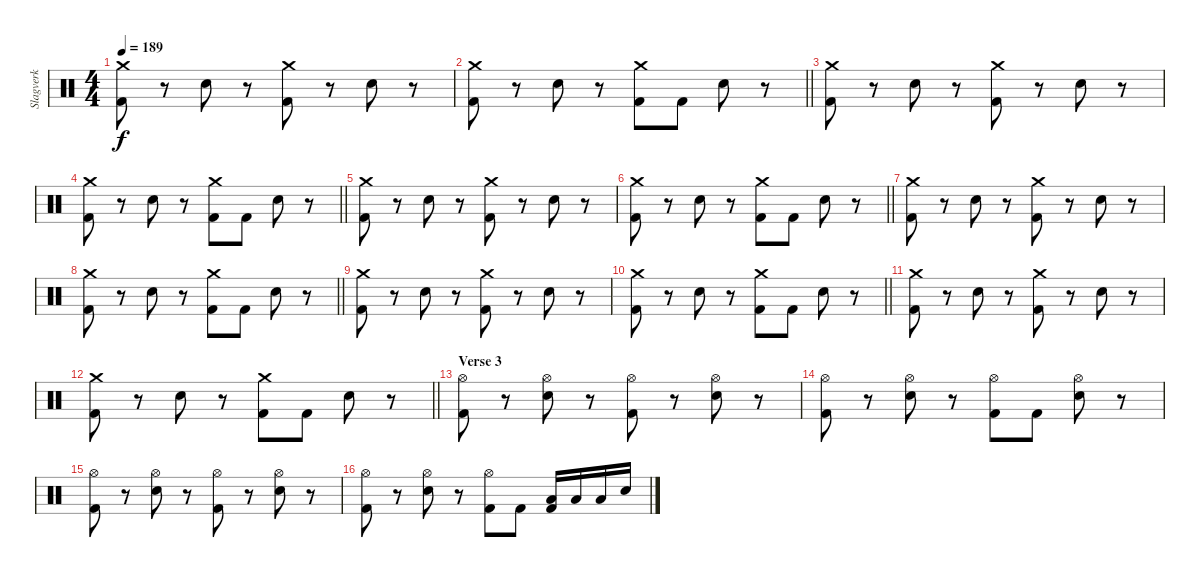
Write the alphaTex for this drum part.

\track ("Slagverk" "Slagverk") {instrument percussion}
\staff {score}
\articulation defaults
\ts (4 4)
\tempo 189
\clef neutral
\ks c
("Crash medium (hit)" "Kick (hit) 2").8{dy f} r.8 "Snare (hit) 2".8 r.8 ("Crash medium (hit)" "Kick (hit) 2").8 r.8 "Snare (hit) 2".8 r.8 |
\barLineRight lightlight
("Crash medium (hit)" "Kick (hit) 2").8 r.8 "Snare (hit) 2".8 r.8 ("Crash medium (hit)" "Kick (hit) 2").8 "Kick (hit) 2".8 "Snare (hit) 2".8 r.8 |
("Crash medium (hit)" "Kick (hit) 2").8 r.8 "Snare (hit) 2".8 r.8 ("Crash medium (hit)" "Kick (hit) 2").8 r.8 "Snare (hit) 2".8 r.8 |
\barLineRight lightlight
("Crash medium (hit)" "Kick (hit) 2").8 r.8 "Snare (hit) 2".8 r.8 ("Crash medium (hit)" "Kick (hit) 2").8 "Kick (hit) 2".8 "Snare (hit) 2".8 r.8 |
("Crash medium (hit)" "Kick (hit) 2").8 r.8 "Snare (hit) 2".8 r.8 ("Crash medium (hit)" "Kick (hit) 2").8 r.8 "Snare (hit) 2".8 r.8 |
\barLineRight lightlight
("Crash medium (hit)" "Kick (hit) 2").8 r.8 "Snare (hit) 2".8 r.8 ("Crash medium (hit)" "Kick (hit) 2").8 "Kick (hit) 2".8 "Snare (hit) 2".8 r.8 |
("Crash medium (hit)" "Kick (hit) 2").8 r.8 "Snare (hit) 2".8 r.8 ("Crash medium (hit)" "Kick (hit) 2").8 r.8 "Snare (hit) 2".8 r.8 |
\barLineRight lightlight
("Crash medium (hit)" "Kick (hit) 2").8 r.8 "Snare (hit) 2".8 r.8 ("Crash medium (hit)" "Kick (hit) 2").8 "Kick (hit) 2".8 "Snare (hit) 2".8 r.8 |
("Crash medium (hit)" "Kick (hit) 2").8 r.8 "Snare (hit) 2".8 r.8 ("Crash medium (hit)" "Kick (hit) 2").8 r.8 "Snare (hit) 2".8 r.8 |
\barLineRight lightlight
("Crash medium (hit)" "Kick (hit) 2").8 r.8 "Snare (hit) 2".8 r.8 ("Crash medium (hit)" "Kick (hit) 2").8 "Kick (hit) 2".8 "Snare (hit) 2".8 r.8 |
("Crash medium (hit)" "Kick (hit) 2").8 r.8 "Snare (hit) 2".8 r.8 ("Crash medium (hit)" "Kick (hit) 2").8 r.8 "Snare (hit) 2".8 r.8 |
\barLineRight lightlight
("Crash medium (hit)" "Kick (hit) 2").8 r.8 "Snare (hit) 2".8 r.8 ("Crash medium (hit)" "Kick (hit) 2").8 "Kick (hit) 2".8 "Snare (hit) 2".8 r.8 |
\section ("" "Verse 3")
("Hi-Hat (open)" "Kick (hit) 2").8 r.8 ("Hi-Hat (open)" "Snare (hit) 2").8 r.8 ("Hi-Hat (open)" "Kick (hit) 2").8 r.8 ("Hi-Hat (open)" "Snare (hit) 2").8 r.8 |
("Hi-Hat (open)" "Kick (hit) 2").8 r.8 ("Hi-Hat (open)" "Snare (hit) 2").8 r.8 ("Hi-Hat (open)" "Kick (hit) 2").8 "Kick (hit) 2".8 ("Hi-Hat (open)" "Snare (hit) 2").8 r.8 |
("Hi-Hat (open)" "Kick (hit) 2").8 r.8 ("Hi-Hat (open)" "Snare (hit) 2").8 r.8 ("Hi-Hat (open)" "Kick (hit) 2").8 r.8 ("Hi-Hat (open)" "Snare (hit) 2").8 r.8 |
("Hi-Hat (open)" "Kick (hit) 2").8 r.8 ("Hi-Hat (open)" "Snare (hit) 2").8 r.8 ("Hi-Hat (open)" "Kick (hit) 2").8 "Kick (hit) 2".8 ("Low Tom (hit)" "Kick (hit) 2").16 "Low Tom (hit)".16 "Low Tom (hit)".16 "Snare (hit) 2".16
